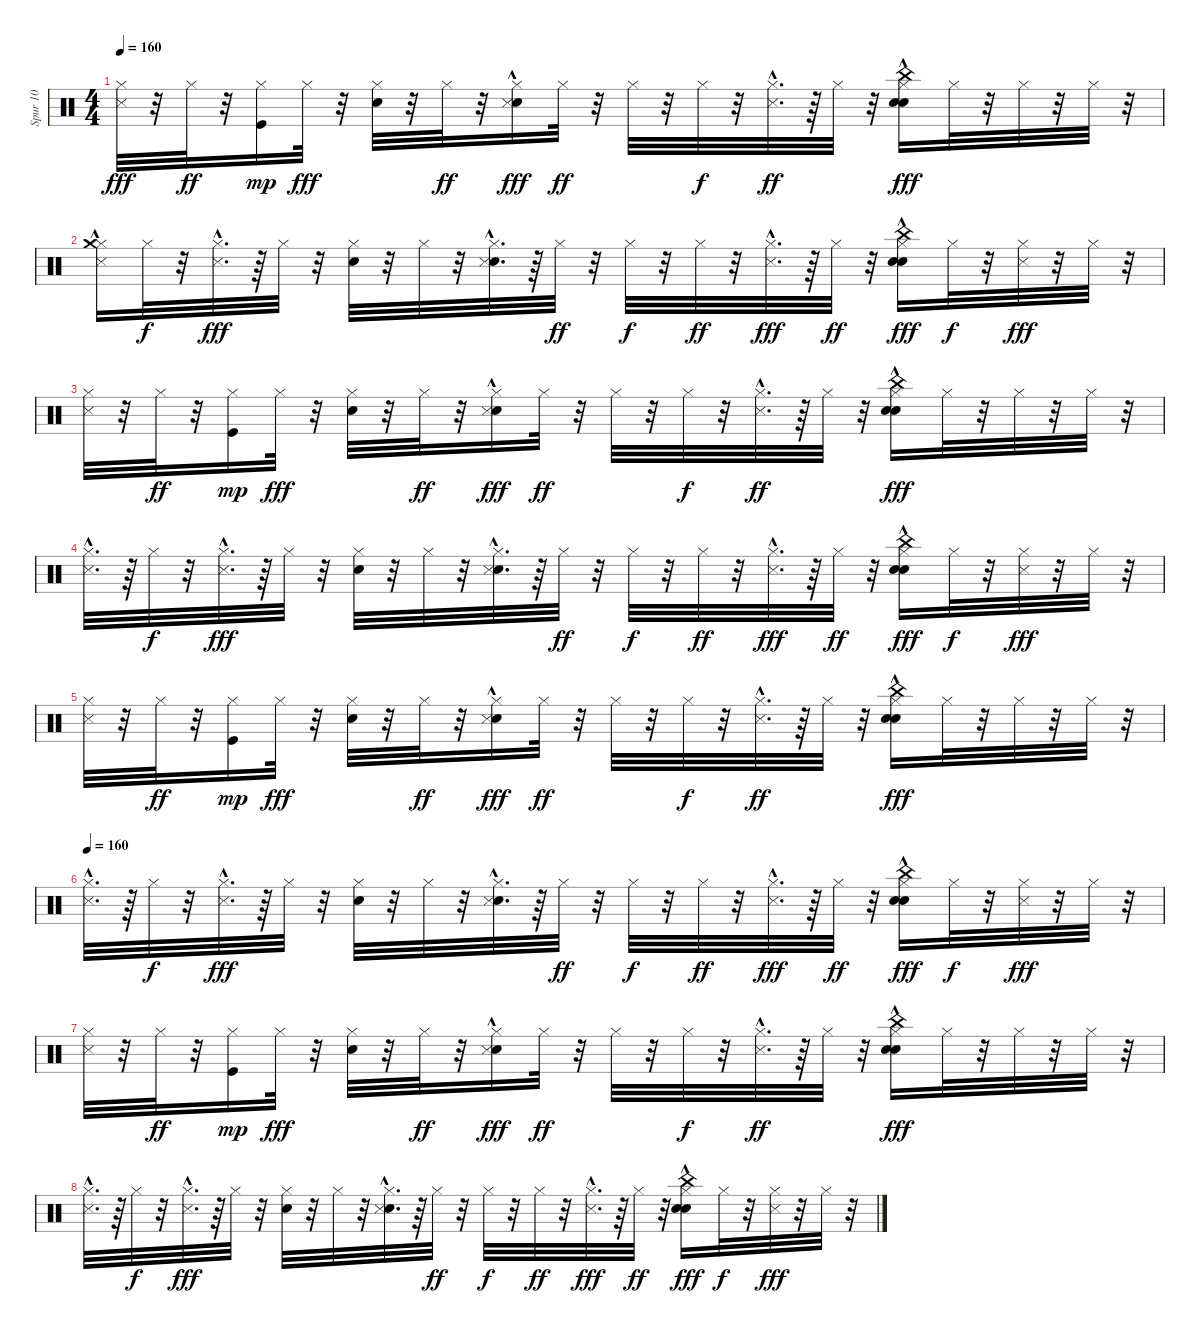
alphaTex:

\track ("Spur 10" "Spur 10") {instrument percussion}
\staff {score}
\articulation defaults
\ts (4 4)
\tempo 160
\clef neutral
\ks c
("Hi-Hat (closed)" "Metronome (hit)").32{dy fff} r.32 "Hi-Hat (closed)".32{dy ff} r.32 ("Hi-Hat (closed)" "Kick (hit)").16{dy mp} "Hi-Hat (closed)".32{dy fff} r.32 ("Hi-Hat (closed)" "Snare (hit) 2").32 r.32 "Hi-Hat (closed)".32{dy ff} r.32 ("Hi-Hat (closed)" "Snare (hit) 2" "Metronome (hit)"{hac}).16{dy fff} "Hi-Hat (closed)".32{dy ff} r.32 "Hi-Hat (closed)".32 r.32 "Hi-Hat (closed)".32{dy f} r.32 ("Hi-Hat (closed)" "Metronome (hit)"{hac}).32{d dy ff} r.64 "Hi-Hat (closed)".32 r.32 ("Hi-Hat (closed)" "Snare (hit) 2"{hac} "China (hit)" "Hand Clap (hit)").16{dy fff} "Hi-Hat (closed)".32 r.32 "Hi-Hat (closed)".32 r.32 "Hi-Hat (closed)".32 r.32 |
("Hi-Hat (closed)" "Metronome (hit)"{hac} "Crash medium (hit)").16 "Hi-Hat (closed)".32{dy f} r.32 ("Hi-Hat (closed)" "Metronome (hit)"{hac}).32{d dy fff} r.64 "Hi-Hat (closed)".32 r.32 ("Hi-Hat (closed)" "Snare (hit) 2").32 r.32 "Hi-Hat (closed)".32 r.32 ("Hi-Hat (closed)" "Snare (hit) 2"{hac} "Metronome (hit)"{hac}).32{d} r.64 "Hi-Hat (closed)".32{dy ff} r.32 "Hi-Hat (closed)".32{dy f} r.32 "Hi-Hat (closed)".32{dy ff} r.32 ("Hi-Hat (closed)" "Metronome (hit)"{hac}).32{d dy fff} r.64 "Hi-Hat (closed)".32{dy ff} r.32 ("Hi-Hat (closed)" "Snare (hit) 2"{hac} "China (hit)" "Hand Clap (hit)").16{dy fff} "Hi-Hat (closed)".32{dy f} r.32 ("Hi-Hat (closed)" "Metronome (hit)").32{dy fff} r.32 "Hi-Hat (closed)".32 r.32 |
("Hi-Hat (closed)" "Metronome (hit)").32 r.32 "Hi-Hat (closed)".32{dy ff} r.32 ("Hi-Hat (closed)" "Kick (hit)").16{dy mp} "Hi-Hat (closed)".32{dy fff} r.32 ("Hi-Hat (closed)" "Snare (hit) 2").32 r.32 "Hi-Hat (closed)".32{dy ff} r.32 ("Hi-Hat (closed)" "Snare (hit) 2" "Metronome (hit)"{hac}).16{dy fff} "Hi-Hat (closed)".32{dy ff} r.32 "Hi-Hat (closed)".32 r.32 "Hi-Hat (closed)".32{dy f} r.32 ("Hi-Hat (closed)" "Metronome (hit)"{hac}).32{d dy ff} r.64 "Hi-Hat (closed)".32 r.32 ("Hi-Hat (closed)" "Snare (hit) 2"{hac} "China (hit)" "Hand Clap (hit)").16{dy fff} "Hi-Hat (closed)".32 r.32 "Hi-Hat (closed)".32 r.32 "Hi-Hat (closed)".32 r.32 |
("Hi-Hat (closed)" "Metronome (hit)"{hac}).32{d} r.64 "Hi-Hat (closed)".32{dy f} r.32 ("Hi-Hat (closed)" "Metronome (hit)"{hac}).32{d dy fff} r.64 "Hi-Hat (closed)".32 r.32 ("Hi-Hat (closed)" "Snare (hit) 2").32 r.32 "Hi-Hat (closed)".32 r.32 ("Hi-Hat (closed)" "Snare (hit) 2"{hac} "Metronome (hit)"{hac}).32{d} r.64 "Hi-Hat (closed)".32{dy ff} r.32 "Hi-Hat (closed)".32{dy f} r.32 "Hi-Hat (closed)".32{dy ff} r.32 ("Hi-Hat (closed)" "Metronome (hit)"{hac}).32{d dy fff} r.64 "Hi-Hat (closed)".32{dy ff} r.32 ("Hi-Hat (closed)" "Snare (hit) 2"{hac} "China (hit)" "Hand Clap (hit)").16{dy fff} "Hi-Hat (closed)".32{dy f} r.32 ("Hi-Hat (closed)" "Metronome (hit)").32{dy fff} r.32 "Hi-Hat (closed)".32 r.32 |
("Hi-Hat (closed)" "Metronome (hit)").32 r.32 "Hi-Hat (closed)".32{dy ff} r.32 ("Hi-Hat (closed)" "Kick (hit)").16{dy mp} "Hi-Hat (closed)".32{dy fff} r.32 ("Hi-Hat (closed)" "Snare (hit) 2").32 r.32 "Hi-Hat (closed)".32{dy ff} r.32 ("Hi-Hat (closed)" "Snare (hit) 2" "Metronome (hit)"{hac}).16{dy fff} "Hi-Hat (closed)".32{dy ff} r.32 "Hi-Hat (closed)".32 r.32 "Hi-Hat (closed)".32{dy f} r.32 ("Hi-Hat (closed)" "Metronome (hit)"{hac}).32{d dy ff} r.64 "Hi-Hat (closed)".32 r.32 ("Hi-Hat (closed)" "Snare (hit) 2"{hac} "China (hit)" "Hand Clap (hit)").16{dy fff} "Hi-Hat (closed)".32 r.32 "Hi-Hat (closed)".32 r.32 "Hi-Hat (closed)".32 r.32 |
\tempo 160
("Hi-Hat (closed)" "Metronome (hit)"{hac}).32{d} r.64 "Hi-Hat (closed)".32{dy f} r.32 ("Hi-Hat (closed)" "Metronome (hit)"{hac}).32{d dy fff} r.64 "Hi-Hat (closed)".32 r.32 ("Hi-Hat (closed)" "Snare (hit) 2").32 r.32 "Hi-Hat (closed)".32 r.32 ("Hi-Hat (closed)" "Snare (hit) 2"{hac} "Metronome (hit)"{hac}).32{d} r.64 "Hi-Hat (closed)".32{dy ff} r.32 "Hi-Hat (closed)".32{dy f} r.32 "Hi-Hat (closed)".32{dy ff} r.32 ("Hi-Hat (closed)" "Metronome (hit)"{hac}).32{d dy fff} r.64 "Hi-Hat (closed)".32{dy ff} r.32 ("Hi-Hat (closed)" "Snare (hit) 2"{hac} "China (hit)" "Hand Clap (hit)").16{dy fff} "Hi-Hat (closed)".32{dy f} r.32 ("Hi-Hat (closed)" "Metronome (hit)").32{dy fff} r.32 "Hi-Hat (closed)".32 r.32 |
("Hi-Hat (closed)" "Metronome (hit)").32 r.32 "Hi-Hat (closed)".32{dy ff} r.32 ("Hi-Hat (closed)" "Kick (hit)").16{dy mp} "Hi-Hat (closed)".32{dy fff} r.32 ("Hi-Hat (closed)" "Snare (hit) 2").32 r.32 "Hi-Hat (closed)".32{dy ff} r.32 ("Hi-Hat (closed)" "Snare (hit) 2" "Metronome (hit)"{hac}).16{dy fff} "Hi-Hat (closed)".32{dy ff} r.32 "Hi-Hat (closed)".32 r.32 "Hi-Hat (closed)".32{dy f} r.32 ("Hi-Hat (closed)" "Metronome (hit)"{hac}).32{d dy ff} r.64 "Hi-Hat (closed)".32 r.32 ("Hi-Hat (closed)" "Snare (hit) 2"{hac} "China (hit)" "Hand Clap (hit)").16{dy fff} "Hi-Hat (closed)".32 r.32 "Hi-Hat (closed)".32 r.32 "Hi-Hat (closed)".32 r.32 |
("Hi-Hat (closed)" "Metronome (hit)"{hac}).32{d} r.64 "Hi-Hat (closed)".32{dy f} r.32 ("Hi-Hat (closed)" "Metronome (hit)"{hac}).32{d dy fff} r.64 "Hi-Hat (closed)".32 r.32 ("Hi-Hat (closed)" "Snare (hit) 2").32 r.32 "Hi-Hat (closed)".32 r.32 ("Hi-Hat (closed)" "Snare (hit) 2"{hac} "Metronome (hit)"{hac}).32{d} r.64 "Hi-Hat (closed)".32{dy ff} r.32 "Hi-Hat (closed)".32{dy f} r.32 "Hi-Hat (closed)".32{dy ff} r.32 ("Hi-Hat (closed)" "Metronome (hit)"{hac}).32{d dy fff} r.64 "Hi-Hat (closed)".32{dy ff} r.32 ("Hi-Hat (closed)" "Snare (hit) 2"{hac} "China (hit)" "Hand Clap (hit)").16{dy fff} "Hi-Hat (closed)".32{dy f} r.32 ("Hi-Hat (closed)" "Metronome (hit)").32{dy fff} r.32 "Hi-Hat (closed)".32 r.32
